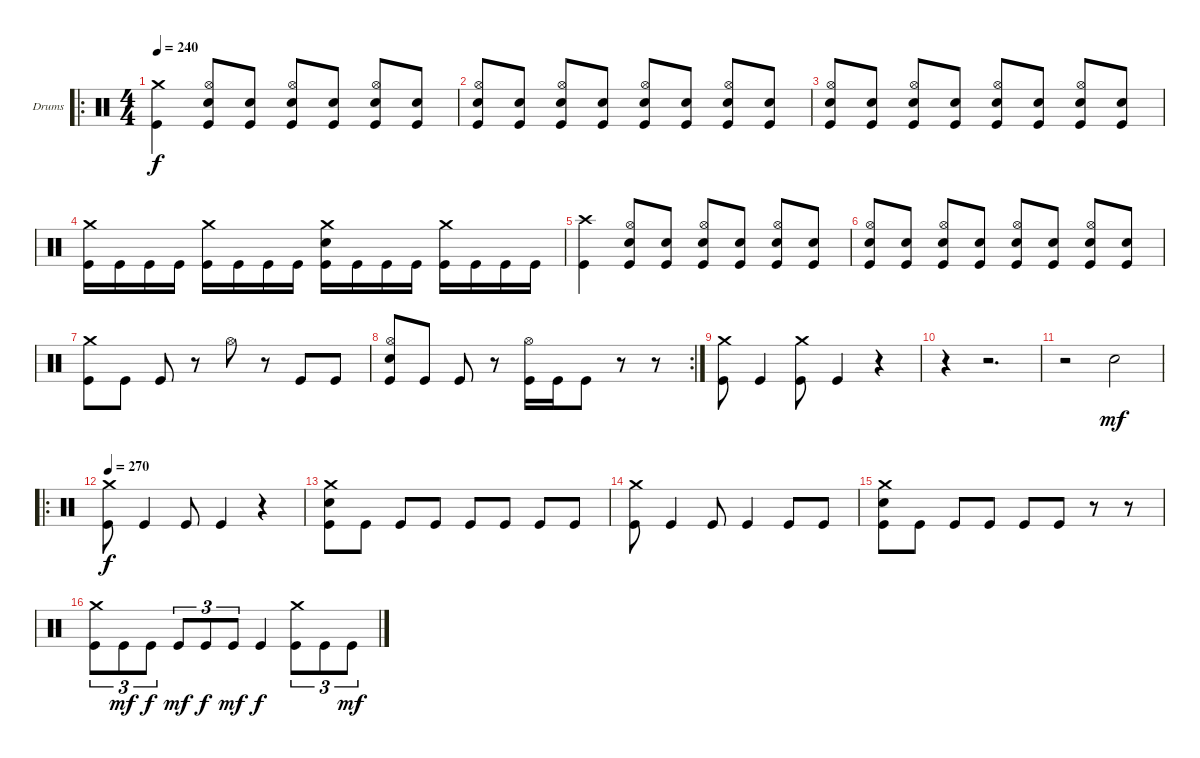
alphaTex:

\bracketExtendMode groupsimilarinstruments
\firstSystemTrackNameOrientation horizontal
\otherSystemsTrackNameOrientation horizontal
\track ("Drumkit" "Drums") {instrument percussion}
\staff {score}
\articulation defaults
\ro
\ts (4 4)
\tempo 240
\clef neutral
\ks c
("Crash medium (hit)" "Kick (hit)").4{dy f} ("Hi-Hat (open)" "Snare (hit) 2" "Kick (hit)").8 ("Snare (hit) 2" "Kick (hit)").8 ("Hi-Hat (open)" "Snare (hit) 2" "Kick (hit)").8 ("Snare (hit) 2" "Kick (hit)").8 ("Hi-Hat (open)" "Snare (hit) 2" "Kick (hit)").8 ("Snare (hit) 2" "Kick (hit)").8 |
("Hi-Hat (open)" "Snare (hit) 2" "Kick (hit)").8 ("Snare (hit) 2" "Kick (hit)").8 ("Hi-Hat (open)" "Snare (hit) 2" "Kick (hit)").8 ("Snare (hit) 2" "Kick (hit)").8 ("Hi-Hat (open)" "Snare (hit) 2" "Kick (hit)").8 ("Snare (hit) 2" "Kick (hit)").8 ("Hi-Hat (open)" "Snare (hit) 2" "Kick (hit)").8 ("Snare (hit) 2" "Kick (hit)").8 |
("Hi-Hat (open)" "Snare (hit) 2" "Kick (hit)").8 ("Snare (hit) 2" "Kick (hit)").8 ("Hi-Hat (open)" "Snare (hit) 2" "Kick (hit)").8 ("Snare (hit) 2" "Kick (hit)").8 ("Hi-Hat (open)" "Snare (hit) 2" "Kick (hit)").8 ("Snare (hit) 2" "Kick (hit)").8 ("Hi-Hat (open)" "Snare (hit) 2" "Kick (hit)").8 ("Snare (hit) 2" "Kick (hit)").8 |
("Crash medium (hit)" "Kick (hit)").16 "Kick (hit)".16 "Kick (hit)".16 "Kick (hit)".16 ("Crash medium (hit)" "Kick (hit)").16 "Kick (hit)".16 "Kick (hit)".16 "Kick (hit)".16 ("Crash medium (hit)" "Snare (hit) 2" "Kick (hit)").16 "Kick (hit)".16 "Kick (hit)".16 "Kick (hit)".16 ("Crash medium (hit)" "Kick (hit)").16 "Kick (hit)".16 "Kick (hit)".16 "Kick (hit)".16 |
("Crash high (hit)" "Kick (hit)").4 ("Hi-Hat (open)" "Snare (hit) 2" "Kick (hit)").8 ("Snare (hit) 2" "Kick (hit)").8 ("Hi-Hat (open)" "Snare (hit) 2" "Kick (hit)").8 ("Snare (hit) 2" "Kick (hit)").8 ("Hi-Hat (open)" "Snare (hit) 2" "Kick (hit)").8 ("Snare (hit) 2" "Kick (hit)").8 |
("Hi-Hat (open)" "Snare (hit) 2" "Kick (hit)").8 ("Snare (hit) 2" "Kick (hit)").8 ("Hi-Hat (open)" "Snare (hit) 2" "Kick (hit)").8 ("Snare (hit) 2" "Kick (hit)").8 ("Hi-Hat (open)" "Snare (hit) 2" "Kick (hit)").8 ("Snare (hit) 2" "Kick (hit)").8 ("Hi-Hat (open)" "Snare (hit) 2" "Kick (hit)").8 ("Snare (hit) 2" "Kick (hit)").8 |
("Crash medium (hit)" "Kick (hit)").8 "Kick (hit)".8 "Kick (hit)".8 r.8 "Hi-Hat (open)".8 r.8 "Kick (hit)".8 "Kick (hit)".8 |
\rc 2
("Hi-Hat (open)" "Snare (hit) 2" "Kick (hit)").8 "Kick (hit)".8 "Kick (hit)".8 r.8 ("Hi-Hat (open)" "Kick (hit)").16 "Kick (hit)".16 "Kick (hit)".8 r.8 r.8 |
("Crash medium (hit)" "Kick (hit)").8 "Kick (hit)".4 ("Crash medium (hit)" "Kick (hit)").8 "Kick (hit)".4 r.4 |
r.4 r.2{d} |
r.2 "Snare (hit) 2".2{dy mf} |
\ro
\tempo 270
("Crash medium (hit)" "Kick (hit)").8{dy f} "Kick (hit)".4 "Kick (hit)".8 "Kick (hit)".4 r.4 |
("Crash medium (hit)" "Snare (hit) 2" "Kick (hit)").8 "Kick (hit)".8 "Kick (hit)".8 "Kick (hit)".8 "Kick (hit)".8 "Kick (hit)".8 "Kick (hit)".8 "Kick (hit)".8 |
("Crash medium (hit)" "Kick (hit)").8 "Kick (hit)".4 "Kick (hit)".8 "Kick (hit)".4 "Kick (hit)".8 "Kick (hit)".8 |
("Crash medium (hit)" "Snare (hit) 2" "Kick (hit)").8 "Kick (hit)".8 "Kick (hit)".8 "Kick (hit)".8 "Kick (hit)".8 "Kick (hit)".8 r.8 r.8 |
("Crash medium (hit)" "Kick (hit)").8{tu (3 2)} "Kick (hit)".8{tu (3 2) dy mf} "Kick (hit)".8{tu (3 2) dy f} "Kick (hit)".8{tu (3 2) dy mf} "Kick (hit)".8{tu (3 2) dy f} "Kick (hit)".8{tu (3 2) dy mf} "Kick (hit)".4{dy f} ("Crash medium (hit)" "Kick (hit)").8{tu (3 2)} "Kick (hit)".8{tu (3 2)} "Kick (hit)".8{tu (3 2) dy mf}
